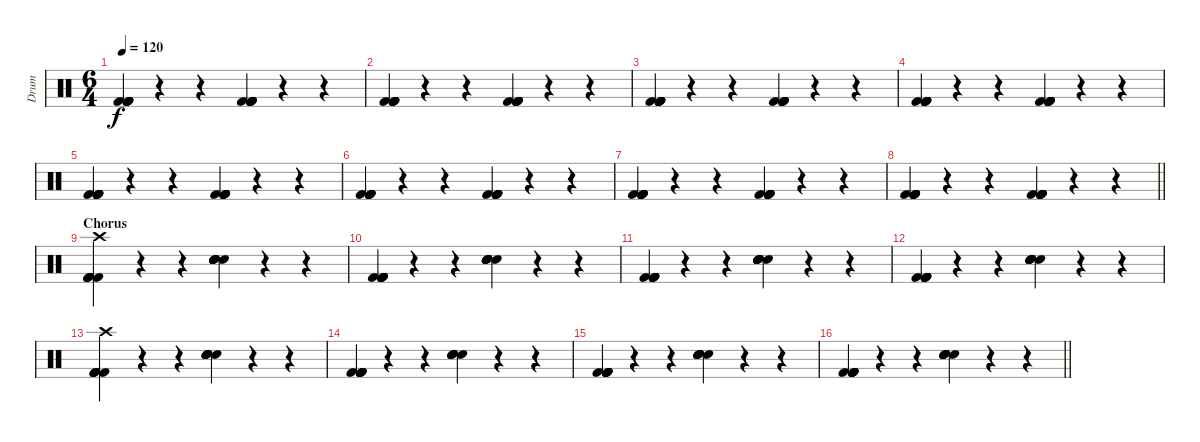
\track ("Drum" "Drum") {instrument percussion}
\staff {score}
\articulation defaults
\ts (6 4)
\tempo 120
\clef neutral
\ks c
("Kick (hit) 2" "Kick (hit) 2" "Kick (hit) 2" "Kick (hit) 2" "Kick (hit) 2" "Kick (hit) 2").4{dy f} r.4 r.4 ("Kick (hit) 2" "Kick (hit) 2" "Kick (hit) 2" "Kick (hit) 2" "Kick (hit) 2" "Kick (hit) 2").4 r.4 r.4 |
("Kick (hit) 2" "Kick (hit) 2" "Kick (hit) 2" "Kick (hit) 2" "Kick (hit) 2" "Kick (hit) 2").4 r.4 r.4 ("Kick (hit) 2" "Kick (hit) 2" "Kick (hit) 2" "Kick (hit) 2" "Kick (hit) 2" "Kick (hit) 2").4 r.4 r.4 |
("Kick (hit) 2" "Kick (hit) 2" "Kick (hit) 2" "Kick (hit) 2" "Kick (hit) 2" "Kick (hit) 2").4 r.4 r.4 ("Kick (hit) 2" "Kick (hit) 2" "Kick (hit) 2" "Kick (hit) 2" "Kick (hit) 2" "Kick (hit) 2").4 r.4 r.4 |
("Kick (hit) 2" "Kick (hit) 2" "Kick (hit) 2" "Kick (hit) 2" "Kick (hit) 2" "Kick (hit) 2").4 r.4 r.4 ("Kick (hit) 2" "Kick (hit) 2" "Kick (hit) 2" "Kick (hit) 2" "Kick (hit) 2" "Kick (hit) 2").4 r.4 r.4 |
("Kick (hit) 2" "Kick (hit) 2" "Kick (hit) 2" "Kick (hit) 2" "Kick (hit) 2" "Kick (hit) 2").4 r.4 r.4 ("Kick (hit) 2" "Kick (hit) 2" "Kick (hit) 2" "Kick (hit) 2" "Kick (hit) 2" "Kick (hit) 2").4 r.4 r.4 |
("Kick (hit) 2" "Kick (hit) 2" "Kick (hit) 2" "Kick (hit) 2" "Kick (hit) 2" "Kick (hit) 2").4 r.4 r.4 ("Kick (hit) 2" "Kick (hit) 2" "Kick (hit) 2" "Kick (hit) 2" "Kick (hit) 2" "Kick (hit) 2").4 r.4 r.4 |
("Kick (hit) 2" "Kick (hit) 2" "Kick (hit) 2" "Kick (hit) 2" "Kick (hit) 2" "Kick (hit) 2").4 r.4 r.4 ("Kick (hit) 2" "Kick (hit) 2" "Kick (hit) 2" "Kick (hit) 2" "Kick (hit) 2" "Kick (hit) 2").4 r.4 r.4 |
\barLineRight lightlight
("Kick (hit) 2" "Kick (hit) 2" "Kick (hit) 2" "Kick (hit) 2" "Kick (hit) 2" "Kick (hit) 2").4 r.4 r.4 ("Kick (hit) 2" "Kick (hit) 2" "Kick (hit) 2" "Kick (hit) 2" "Kick (hit) 2" "Kick (hit) 2").4 r.4 r.4 |
\section ("" "Chorus")
("Kick (hit) 2" "Kick (hit) 2" "Kick (hit) 2" "Kick (hit) 2" "Kick (hit) 2" "Crash high (hit)").4 r.4 r.4 ("Electric Snare (hit)" "Electric Snare (hit)" "Electric Snare (hit)" "Electric Snare (hit)" "Electric Snare (hit)" "Electric Snare (hit)").4 r.4 r.4 |
("Kick (hit) 2" "Kick (hit) 2" "Kick (hit) 2" "Kick (hit) 2" "Kick (hit) 2" "Kick (hit) 2").4 r.4 r.4 ("Electric Snare (hit)" "Electric Snare (hit)" "Electric Snare (hit)" "Electric Snare (hit)" "Electric Snare (hit)" "Electric Snare (hit)").4 r.4 r.4 |
("Kick (hit) 2" "Kick (hit) 2" "Kick (hit) 2" "Kick (hit) 2" "Kick (hit) 2" "Kick (hit) 2").4 r.4 r.4 ("Electric Snare (hit)" "Electric Snare (hit)" "Electric Snare (hit)" "Electric Snare (hit)" "Electric Snare (hit)" "Electric Snare (hit)").4 r.4 r.4 |
("Kick (hit) 2" "Kick (hit) 2" "Kick (hit) 2" "Kick (hit) 2" "Kick (hit) 2" "Kick (hit) 2").4 r.4 r.4 ("Electric Snare (hit)" "Electric Snare (hit)" "Electric Snare (hit)" "Electric Snare (hit)" "Electric Snare (hit)" "Electric Snare (hit)").4 r.4 r.4 |
("Kick (hit) 2" "Kick (hit) 2" "Kick (hit) 2" "Kick (hit) 2" "Kick (hit) 2" "Crash high (hit)").4 r.4 r.4 ("Electric Snare (hit)" "Electric Snare (hit)" "Electric Snare (hit)" "Electric Snare (hit)" "Electric Snare (hit)" "Electric Snare (hit)").4 r.4 r.4 |
("Kick (hit) 2" "Kick (hit) 2" "Kick (hit) 2" "Kick (hit) 2" "Kick (hit) 2" "Kick (hit) 2").4 r.4 r.4 ("Electric Snare (hit)" "Electric Snare (hit)" "Electric Snare (hit)" "Electric Snare (hit)" "Electric Snare (hit)" "Electric Snare (hit)").4 r.4 r.4 |
("Kick (hit) 2" "Kick (hit) 2" "Kick (hit) 2" "Kick (hit) 2" "Kick (hit) 2" "Kick (hit) 2").4 r.4 r.4 ("Electric Snare (hit)" "Electric Snare (hit)" "Electric Snare (hit)" "Electric Snare (hit)" "Electric Snare (hit)" "Electric Snare (hit)").4 r.4 r.4 |
\barLineRight lightlight
("Kick (hit) 2" "Kick (hit) 2" "Kick (hit) 2" "Kick (hit) 2" "Kick (hit) 2" "Kick (hit) 2").4 r.4 r.4 ("Electric Snare (hit)" "Electric Snare (hit)" "Electric Snare (hit)" "Electric Snare (hit)" "Electric Snare (hit)" "Electric Snare (hit)").4 r.4 r.4
